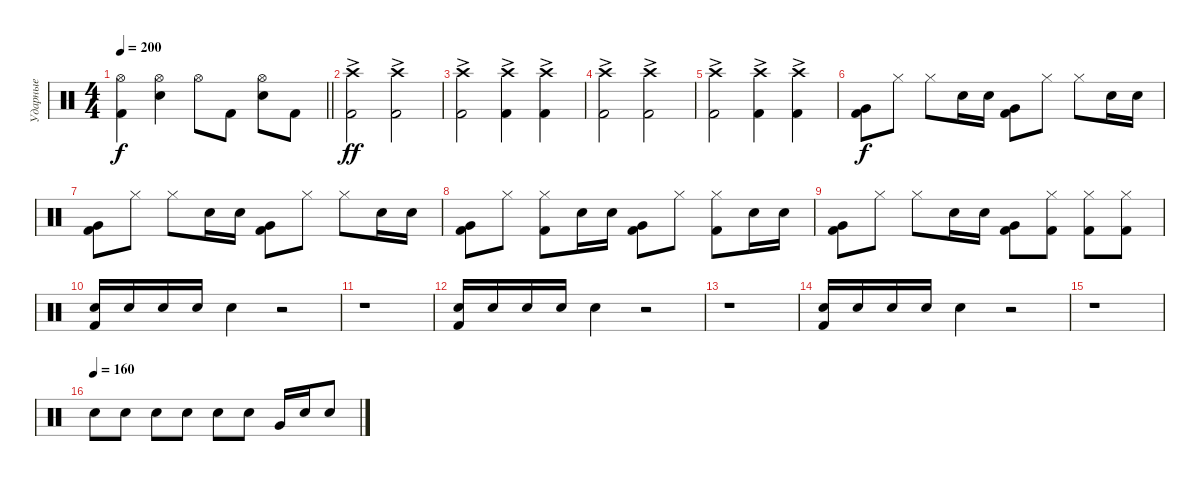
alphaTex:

\track ("Ударные" "Ударные") {instrument percussion}
\staff
\articulation defaults
\ts (4 4)
\tempo 200
\clef neutral
\barLineRight lightlight
\ks c
("Kick (hit) 2" "Hi-Hat (open)").4{dy f} ("Snare (hit) 2" "Hi-Hat (open)").4 "Hi-Hat (open)".8 "Kick (hit) 2".8 ("Snare (hit) 2" "Hi-Hat (open)").8 "Kick (hit) 2".8 |
("Kick (hit) 2" "Crash high (hit)"{ac}).2{dy ff} ("Kick (hit) 2" "Crash high (hit)"{ac}).2 |
("Kick (hit) 2" "Crash high (hit)"{ac}).2 ("Kick (hit) 2" "Crash high (hit)"{ac}).4 ("Kick (hit) 2" "Crash high (hit)"{ac}).4 |
("Kick (hit) 2" "Crash high (hit)"{ac}).2 ("Kick (hit) 2" "Crash high (hit)"{ac}).2 |
("Kick (hit) 2" "Crash high (hit)"{ac}).2 ("Kick (hit) 2" "Crash high (hit)"{ac}).4 ("Kick (hit) 2" "Crash high (hit)"{ac}).4 |
("Kick (hit) 2" "Very Low Tom (hit)").8{dy f} "Hi-Hat (closed)".8 "Hi-Hat (closed)".8 "Snare (hit) 2".16 "Snare (hit) 2".16 ("Kick (hit) 2" "Very Low Tom (hit)").8 "Hi-Hat (closed)".8 "Hi-Hat (closed)".8 "Snare (hit) 2".16 "Snare (hit) 2".16 |
("Kick (hit) 2" "Very Low Tom (hit)").8 "Hi-Hat (closed)".8 "Hi-Hat (closed)".8 "Snare (hit) 2".16 "Snare (hit) 2".16 ("Kick (hit) 2" "Very Low Tom (hit)").8 "Hi-Hat (closed)".8 "Hi-Hat (closed)".8 "Snare (hit) 2".16 "Snare (hit) 2".16 |
("Kick (hit) 2" "Very Low Tom (hit)").8 "Hi-Hat (closed)".8 ("Kick (hit) 2" "Hi-Hat (closed)").8 "Snare (hit) 2".16 "Snare (hit) 2".16 ("Kick (hit) 2" "Very Low Tom (hit)").8 "Hi-Hat (closed)".8 ("Kick (hit) 2" "Hi-Hat (closed)").8 "Snare (hit) 2".16 "Snare (hit) 2".16 |
("Kick (hit) 2" "Very Low Tom (hit)").8 "Hi-Hat (closed)".8 "Hi-Hat (closed)".8 "Snare (hit) 2".16 "Snare (hit) 2".16 ("Kick (hit) 2" "Very Low Tom (hit)").8 ("Kick (hit) 2" "Hi-Hat (closed)").8 ("Kick (hit) 2" "Hi-Hat (closed)").8 ("Kick (hit) 2" "Hi-Hat (closed)").8 |
("Kick (hit) 2" "Snare (hit) 2").16 "Snare (hit) 2".16 "Snare (hit) 2".16 "Snare (hit) 2".16 "Snare (hit) 2".4 r.2 |
r.1 |
("Kick (hit) 2" "Snare (hit) 2").16 "Snare (hit) 2".16 "Snare (hit) 2".16 "Snare (hit) 2".16 "Snare (hit) 2".4 r.2 |
r.1 |
("Kick (hit) 2" "Snare (hit) 2").16 "Snare (hit) 2".16 "Snare (hit) 2".16 "Snare (hit) 2".16 "Snare (hit) 2".4 r.2 |
r.1 |
\tempo (160)
"Snare (hit) 2".8 "Snare (hit) 2".8 "Snare (hit) 2".8 "Snare (hit) 2".8 "Snare (hit) 2".8 "Snare (hit) 2".8 "Very Low Tom (hit)".16 "Snare (hit) 2".16 "Snare (hit) 2".8
